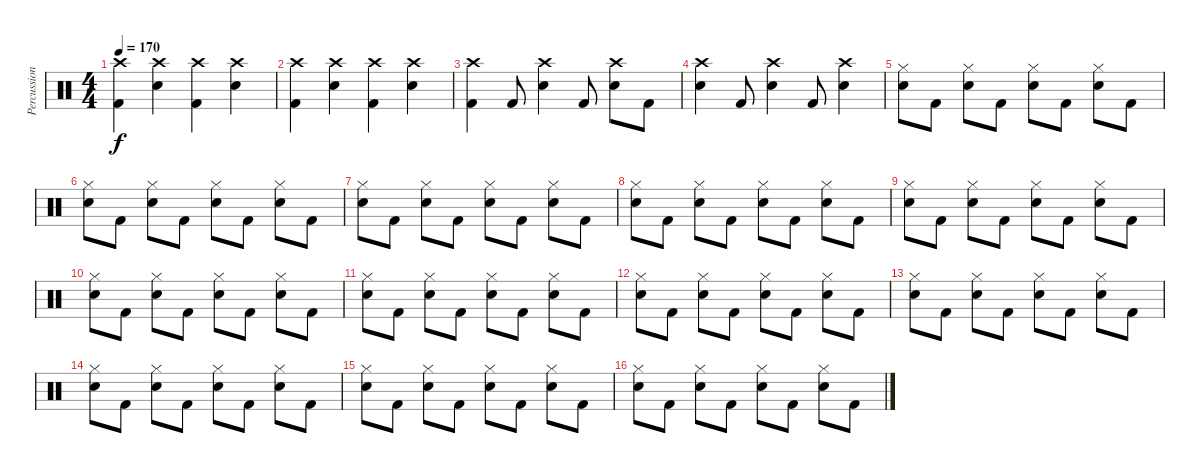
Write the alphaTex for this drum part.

\track ("Percussion" "Percussion") {instrument percussion}
\staff {score}
\articulation defaults
\ts (4 4)
\tempo 170
\clef neutral
\ks c
("Crash high (hit)" "Kick (hit) 2").4{dy f} ("Crash high (hit)" "Electric Snare (hit)").4 ("Crash high (hit)" "Kick (hit) 2").4 ("Crash high (hit)" "Electric Snare (hit)").4 |
("Crash high (hit)" "Kick (hit) 2").4 ("Crash high (hit)" "Electric Snare (hit)").4 ("Crash high (hit)" "Kick (hit) 2").4 ("Crash high (hit)" "Electric Snare (hit)").4 |
("Crash high (hit)" "Kick (hit) 2").4 "Kick (hit) 2".8 ("Crash high (hit)" "Electric Snare (hit)").4 "Kick (hit) 2".8 ("Crash high (hit)" "Electric Snare (hit)").8 "Kick (hit) 2".8 |
("Crash high (hit)" "Electric Snare (hit)").4 "Kick (hit) 2".8 ("Crash high (hit)" "Electric Snare (hit)").4 "Kick (hit) 2".8 ("Crash high (hit)" "Electric Snare (hit)").4 |
("Hi-Hat (closed)" "Electric Snare (hit)").8 "Kick (hit) 2".8 ("Hi-Hat (closed)" "Electric Snare (hit)").8 "Kick (hit) 2".8 ("Hi-Hat (closed)" "Electric Snare (hit)").8 "Kick (hit) 2".8 ("Hi-Hat (closed)" "Electric Snare (hit)").8 "Kick (hit) 2".8 |
("Hi-Hat (closed)" "Electric Snare (hit)").8 "Kick (hit) 2".8 ("Hi-Hat (closed)" "Electric Snare (hit)").8 "Kick (hit) 2".8 ("Hi-Hat (closed)" "Electric Snare (hit)").8 "Kick (hit) 2".8 ("Hi-Hat (closed)" "Electric Snare (hit)").8 "Kick (hit) 2".8 |
("Hi-Hat (closed)" "Electric Snare (hit)").8 "Kick (hit) 2".8 ("Hi-Hat (closed)" "Electric Snare (hit)").8 "Kick (hit) 2".8 ("Hi-Hat (closed)" "Electric Snare (hit)").8 "Kick (hit) 2".8 ("Hi-Hat (closed)" "Electric Snare (hit)").8 "Kick (hit) 2".8 |
("Hi-Hat (closed)" "Electric Snare (hit)").8 "Kick (hit) 2".8 ("Hi-Hat (closed)" "Electric Snare (hit)").8 "Kick (hit) 2".8 ("Hi-Hat (closed)" "Electric Snare (hit)").8 "Kick (hit) 2".8 ("Hi-Hat (closed)" "Electric Snare (hit)").8 "Kick (hit) 2".8 |
("Hi-Hat (closed)" "Electric Snare (hit)").8 "Kick (hit) 2".8 ("Hi-Hat (closed)" "Electric Snare (hit)").8 "Kick (hit) 2".8 ("Hi-Hat (closed)" "Electric Snare (hit)").8 "Kick (hit) 2".8 ("Hi-Hat (closed)" "Electric Snare (hit)").8 "Kick (hit) 2".8 |
("Hi-Hat (closed)" "Electric Snare (hit)").8 "Kick (hit) 2".8 ("Hi-Hat (closed)" "Electric Snare (hit)").8 "Kick (hit) 2".8 ("Hi-Hat (closed)" "Electric Snare (hit)").8 "Kick (hit) 2".8 ("Hi-Hat (closed)" "Electric Snare (hit)").8 "Kick (hit) 2".8 |
("Hi-Hat (closed)" "Electric Snare (hit)").8 "Kick (hit) 2".8 ("Hi-Hat (closed)" "Electric Snare (hit)").8 "Kick (hit) 2".8 ("Hi-Hat (closed)" "Electric Snare (hit)").8 "Kick (hit) 2".8 ("Hi-Hat (closed)" "Electric Snare (hit)").8 "Kick (hit) 2".8 |
("Hi-Hat (closed)" "Electric Snare (hit)").8 "Kick (hit) 2".8 ("Hi-Hat (closed)" "Electric Snare (hit)").8 "Kick (hit) 2".8 ("Hi-Hat (closed)" "Electric Snare (hit)").8 "Kick (hit) 2".8 ("Hi-Hat (closed)" "Electric Snare (hit)").8 "Kick (hit) 2".8 |
("Hi-Hat (closed)" "Electric Snare (hit)").8 "Kick (hit) 2".8 ("Hi-Hat (closed)" "Electric Snare (hit)").8 "Kick (hit) 2".8 ("Hi-Hat (closed)" "Electric Snare (hit)").8 "Kick (hit) 2".8 ("Hi-Hat (closed)" "Electric Snare (hit)").8 "Kick (hit) 2".8 |
("Hi-Hat (closed)" "Electric Snare (hit)").8 "Kick (hit) 2".8 ("Hi-Hat (closed)" "Electric Snare (hit)").8 "Kick (hit) 2".8 ("Hi-Hat (closed)" "Electric Snare (hit)").8 "Kick (hit) 2".8 ("Hi-Hat (closed)" "Electric Snare (hit)").8 "Kick (hit) 2".8 |
("Hi-Hat (closed)" "Electric Snare (hit)").8 "Kick (hit) 2".8 ("Hi-Hat (closed)" "Electric Snare (hit)").8 "Kick (hit) 2".8 ("Hi-Hat (closed)" "Electric Snare (hit)").8 "Kick (hit) 2".8 ("Hi-Hat (closed)" "Electric Snare (hit)").8 "Kick (hit) 2".8 |
("Hi-Hat (closed)" "Electric Snare (hit)").8 "Kick (hit) 2".8 ("Hi-Hat (closed)" "Electric Snare (hit)").8 "Kick (hit) 2".8 ("Hi-Hat (closed)" "Electric Snare (hit)").8 "Kick (hit) 2".8 ("Hi-Hat (closed)" "Electric Snare (hit)").8 "Kick (hit) 2".8
